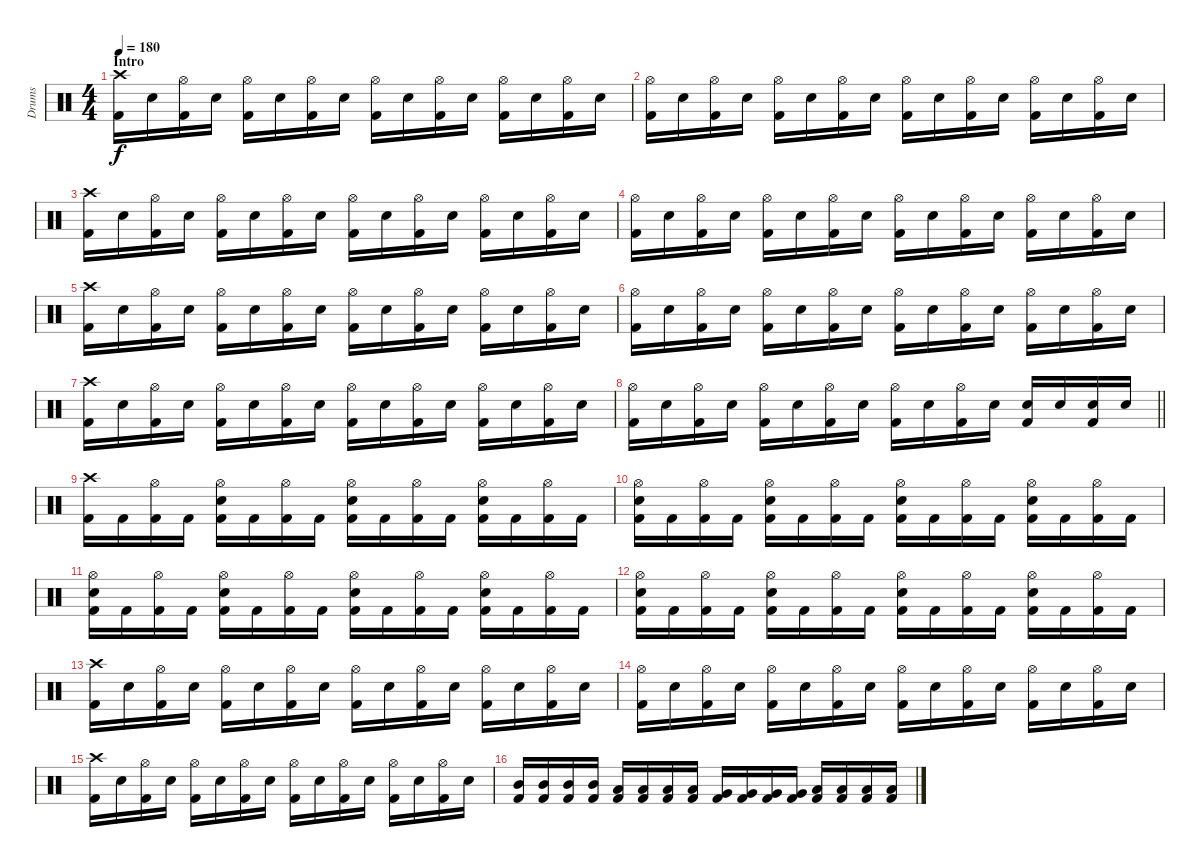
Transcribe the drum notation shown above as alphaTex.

\track ("Drums" "Drums") {instrument percussion}
\staff {score}
\articulation defaults
\ts (4 4)
\section ("" "Intro")
\tempo 180
\clef neutral
\ks c
("Crash high (hit)" "Kick (hit) 2").16{dy f} "Electric Snare (hit)".16 ("Hi-Hat (open)" "Kick (hit) 2").16 "Electric Snare (hit)".16 ("Hi-Hat (open)" "Kick (hit) 2").16 "Electric Snare (hit)".16 ("Hi-Hat (open)" "Kick (hit) 2").16 "Electric Snare (hit)".16 ("Hi-Hat (open)" "Kick (hit) 2").16 "Electric Snare (hit)".16 ("Hi-Hat (open)" "Kick (hit) 2").16 "Electric Snare (hit)".16 ("Hi-Hat (open)" "Kick (hit) 2").16 "Electric Snare (hit)".16 ("Hi-Hat (open)" "Kick (hit) 2").16 "Electric Snare (hit)".16 |
("Hi-Hat (open)" "Kick (hit) 2").16 "Electric Snare (hit)".16 ("Hi-Hat (open)" "Kick (hit) 2").16 "Electric Snare (hit)".16 ("Hi-Hat (open)" "Kick (hit) 2").16 "Electric Snare (hit)".16 ("Hi-Hat (open)" "Kick (hit) 2").16 "Electric Snare (hit)".16 ("Hi-Hat (open)" "Kick (hit) 2").16 "Electric Snare (hit)".16 ("Hi-Hat (open)" "Kick (hit) 2").16 "Electric Snare (hit)".16 ("Hi-Hat (open)" "Kick (hit) 2").16 "Electric Snare (hit)".16 ("Hi-Hat (open)" "Kick (hit) 2").16 "Electric Snare (hit)".16 |
("Crash high (hit)" "Kick (hit) 2").16 "Electric Snare (hit)".16 ("Hi-Hat (open)" "Kick (hit) 2").16 "Electric Snare (hit)".16 ("Hi-Hat (open)" "Kick (hit) 2").16 "Electric Snare (hit)".16 ("Hi-Hat (open)" "Kick (hit) 2").16 "Electric Snare (hit)".16 ("Hi-Hat (open)" "Kick (hit) 2").16 "Electric Snare (hit)".16 ("Hi-Hat (open)" "Kick (hit) 2").16 "Electric Snare (hit)".16 ("Hi-Hat (open)" "Kick (hit) 2").16 "Electric Snare (hit)".16 ("Hi-Hat (open)" "Kick (hit) 2").16 "Electric Snare (hit)".16 |
("Hi-Hat (open)" "Kick (hit) 2").16 "Electric Snare (hit)".16 ("Hi-Hat (open)" "Kick (hit) 2").16 "Electric Snare (hit)".16 ("Hi-Hat (open)" "Kick (hit) 2").16 "Electric Snare (hit)".16 ("Hi-Hat (open)" "Kick (hit) 2").16 "Electric Snare (hit)".16 ("Hi-Hat (open)" "Kick (hit) 2").16 "Electric Snare (hit)".16 ("Hi-Hat (open)" "Kick (hit) 2").16 "Electric Snare (hit)".16 ("Hi-Hat (open)" "Kick (hit) 2").16 "Electric Snare (hit)".16 ("Hi-Hat (open)" "Kick (hit) 2").16 "Electric Snare (hit)".16 |
("Crash high (hit)" "Kick (hit) 2").16 "Electric Snare (hit)".16 ("Hi-Hat (open)" "Kick (hit) 2").16 "Electric Snare (hit)".16 ("Hi-Hat (open)" "Kick (hit) 2").16 "Electric Snare (hit)".16 ("Hi-Hat (open)" "Kick (hit) 2").16 "Electric Snare (hit)".16 ("Hi-Hat (open)" "Kick (hit) 2").16 "Electric Snare (hit)".16 ("Hi-Hat (open)" "Kick (hit) 2").16 "Electric Snare (hit)".16 ("Hi-Hat (open)" "Kick (hit) 2").16 "Electric Snare (hit)".16 ("Hi-Hat (open)" "Kick (hit) 2").16 "Electric Snare (hit)".16 |
("Hi-Hat (open)" "Kick (hit) 2").16 "Electric Snare (hit)".16 ("Hi-Hat (open)" "Kick (hit) 2").16 "Electric Snare (hit)".16 ("Hi-Hat (open)" "Kick (hit) 2").16 "Electric Snare (hit)".16 ("Hi-Hat (open)" "Kick (hit) 2").16 "Electric Snare (hit)".16 ("Hi-Hat (open)" "Kick (hit) 2").16 "Electric Snare (hit)".16 ("Hi-Hat (open)" "Kick (hit) 2").16 "Electric Snare (hit)".16 ("Hi-Hat (open)" "Kick (hit) 2").16 "Electric Snare (hit)".16 ("Hi-Hat (open)" "Kick (hit) 2").16 "Electric Snare (hit)".16 |
("Crash high (hit)" "Kick (hit) 2").16 "Electric Snare (hit)".16 ("Hi-Hat (open)" "Kick (hit) 2").16 "Electric Snare (hit)".16 ("Hi-Hat (open)" "Kick (hit) 2").16 "Electric Snare (hit)".16 ("Hi-Hat (open)" "Kick (hit) 2").16 "Electric Snare (hit)".16 ("Hi-Hat (open)" "Kick (hit) 2").16 "Electric Snare (hit)".16 ("Hi-Hat (open)" "Kick (hit) 2").16 "Electric Snare (hit)".16 ("Hi-Hat (open)" "Kick (hit) 2").16 "Electric Snare (hit)".16 ("Hi-Hat (open)" "Kick (hit) 2").16 "Electric Snare (hit)".16 |
\barLineRight lightlight
("Hi-Hat (open)" "Kick (hit) 2").16 "Electric Snare (hit)".16 ("Hi-Hat (open)" "Kick (hit) 2").16 "Electric Snare (hit)".16 ("Hi-Hat (open)" "Kick (hit) 2").16 "Electric Snare (hit)".16 ("Hi-Hat (open)" "Kick (hit) 2").16 "Electric Snare (hit)".16 ("Hi-Hat (open)" "Kick (hit) 2").16 "Electric Snare (hit)".16 ("Hi-Hat (open)" "Kick (hit) 2").16 "Electric Snare (hit)".16 ("Electric Snare (hit)" "Kick (hit) 2").16 "Electric Snare (hit)".16 ("Electric Snare (hit)" "Kick (hit) 2").16 "Electric Snare (hit)".16 |
\section ("" "")
("Crash high (hit)" "Kick (hit) 2").16 "Kick (hit) 2".16 ("Hi-Hat (open)" "Kick (hit) 2").16 "Kick (hit) 2".16 ("Hi-Hat (open)" "Electric Snare (hit)" "Kick (hit) 2").16 "Kick (hit) 2".16 ("Hi-Hat (open)" "Kick (hit) 2").16 "Kick (hit) 2".16 ("Hi-Hat (open)" "Electric Snare (hit)" "Kick (hit) 2").16 "Kick (hit) 2".16 ("Hi-Hat (open)" "Kick (hit) 2").16 "Kick (hit) 2".16 ("Hi-Hat (open)" "Electric Snare (hit)" "Kick (hit) 2").16 "Kick (hit) 2".16 ("Hi-Hat (open)" "Kick (hit) 2").16 "Kick (hit) 2".16 |
("Hi-Hat (open)" "Electric Snare (hit)" "Kick (hit) 2").16 "Kick (hit) 2".16 ("Hi-Hat (open)" "Kick (hit) 2").16 "Kick (hit) 2".16 ("Hi-Hat (open)" "Electric Snare (hit)" "Kick (hit) 2").16 "Kick (hit) 2".16 ("Hi-Hat (open)" "Kick (hit) 2").16 "Kick (hit) 2".16 ("Hi-Hat (open)" "Electric Snare (hit)" "Kick (hit) 2").16 "Kick (hit) 2".16 ("Hi-Hat (open)" "Kick (hit) 2").16 "Kick (hit) 2".16 ("Hi-Hat (open)" "Electric Snare (hit)" "Kick (hit) 2").16 "Kick (hit) 2".16 ("Hi-Hat (open)" "Kick (hit) 2").16 "Kick (hit) 2".16 |
("Hi-Hat (open)" "Electric Snare (hit)" "Kick (hit) 2").16 "Kick (hit) 2".16 ("Hi-Hat (open)" "Kick (hit) 2").16 "Kick (hit) 2".16 ("Hi-Hat (open)" "Electric Snare (hit)" "Kick (hit) 2").16 "Kick (hit) 2".16 ("Hi-Hat (open)" "Kick (hit) 2").16 "Kick (hit) 2".16 ("Hi-Hat (open)" "Electric Snare (hit)" "Kick (hit) 2").16 "Kick (hit) 2".16 ("Hi-Hat (open)" "Kick (hit) 2").16 "Kick (hit) 2".16 ("Hi-Hat (open)" "Electric Snare (hit)" "Kick (hit) 2").16 "Kick (hit) 2".16 ("Hi-Hat (open)" "Kick (hit) 2").16 "Kick (hit) 2".16 |
("Hi-Hat (open)" "Electric Snare (hit)" "Kick (hit) 2").16 "Kick (hit) 2".16 ("Hi-Hat (open)" "Kick (hit) 2").16 "Kick (hit) 2".16 ("Hi-Hat (open)" "Electric Snare (hit)" "Kick (hit) 2").16 "Kick (hit) 2".16 ("Hi-Hat (open)" "Kick (hit) 2").16 "Kick (hit) 2".16 ("Hi-Hat (open)" "Electric Snare (hit)" "Kick (hit) 2").16 "Kick (hit) 2".16 ("Hi-Hat (open)" "Kick (hit) 2").16 "Kick (hit) 2".16 ("Hi-Hat (open)" "Electric Snare (hit)" "Kick (hit) 2").16 "Kick (hit) 2".16 ("Hi-Hat (open)" "Kick (hit) 2").16 "Kick (hit) 2".16 |
("Crash high (hit)" "Kick (hit) 2").16 "Electric Snare (hit)".16 ("Hi-Hat (open)" "Kick (hit) 2").16 "Electric Snare (hit)".16 ("Hi-Hat (open)" "Kick (hit) 2").16 "Electric Snare (hit)".16 ("Hi-Hat (open)" "Kick (hit) 2").16 "Electric Snare (hit)".16 ("Hi-Hat (open)" "Kick (hit) 2").16 "Electric Snare (hit)".16 ("Hi-Hat (open)" "Kick (hit) 2").16 "Electric Snare (hit)".16 ("Hi-Hat (open)" "Kick (hit) 2").16 "Electric Snare (hit)".16 ("Hi-Hat (open)" "Kick (hit) 2").16 "Electric Snare (hit)".16 |
("Hi-Hat (open)" "Kick (hit) 2").16 "Electric Snare (hit)".16 ("Hi-Hat (open)" "Kick (hit) 2").16 "Electric Snare (hit)".16 ("Hi-Hat (open)" "Kick (hit) 2").16 "Electric Snare (hit)".16 ("Hi-Hat (open)" "Kick (hit) 2").16 "Electric Snare (hit)".16 ("Hi-Hat (open)" "Kick (hit) 2").16 "Electric Snare (hit)".16 ("Hi-Hat (open)" "Kick (hit) 2").16 "Electric Snare (hit)".16 ("Hi-Hat (open)" "Kick (hit) 2").16 "Electric Snare (hit)".16 ("Hi-Hat (open)" "Kick (hit) 2").16 "Electric Snare (hit)".16 |
("Crash high (hit)" "Kick (hit) 2").16 "Electric Snare (hit)".16 ("Hi-Hat (open)" "Kick (hit) 2").16 "Electric Snare (hit)".16 ("Hi-Hat (open)" "Kick (hit) 2").16 "Electric Snare (hit)".16 ("Hi-Hat (open)" "Kick (hit) 2").16 "Electric Snare (hit)".16 ("Hi-Hat (open)" "Kick (hit) 2").16 "Electric Snare (hit)".16 ("Hi-Hat (open)" "Kick (hit) 2").16 "Electric Snare (hit)".16 ("Hi-Hat (open)" "Kick (hit) 2").16 "Electric Snare (hit)".16 ("Hi-Hat (open)" "Kick (hit) 2").16 "Electric Snare (hit)".16 |
("Mid Tom (hit)" "Kick (hit) 2").16 ("Mid Tom (hit)" "Kick (hit) 2").16 ("Mid Tom (hit)" "Kick (hit) 2").16 ("Mid Tom (hit)" "Kick (hit) 2").16 ("Low Tom (hit)" "Kick (hit) 2").16 ("Low Tom (hit)" "Kick (hit) 2").16 ("Low Tom (hit)" "Kick (hit) 2").16 ("Low Tom (hit)" "Kick (hit) 2").16 ("Very Low Tom (hit)" "Kick (hit) 2").16 ("Very Low Tom (hit)" "Kick (hit) 2").16 ("Very Low Tom (hit)" "Kick (hit) 2").16 ("Very Low Tom (hit)" "Kick (hit) 2").16 ("Low Floor Tom (hit)" "Kick (hit) 2").16 ("Low Floor Tom (hit)" "Kick (hit) 2").16 ("Low Floor Tom (hit)" "Kick (hit) 2").16 ("Low Floor Tom (hit)" "Kick (hit) 2").16
